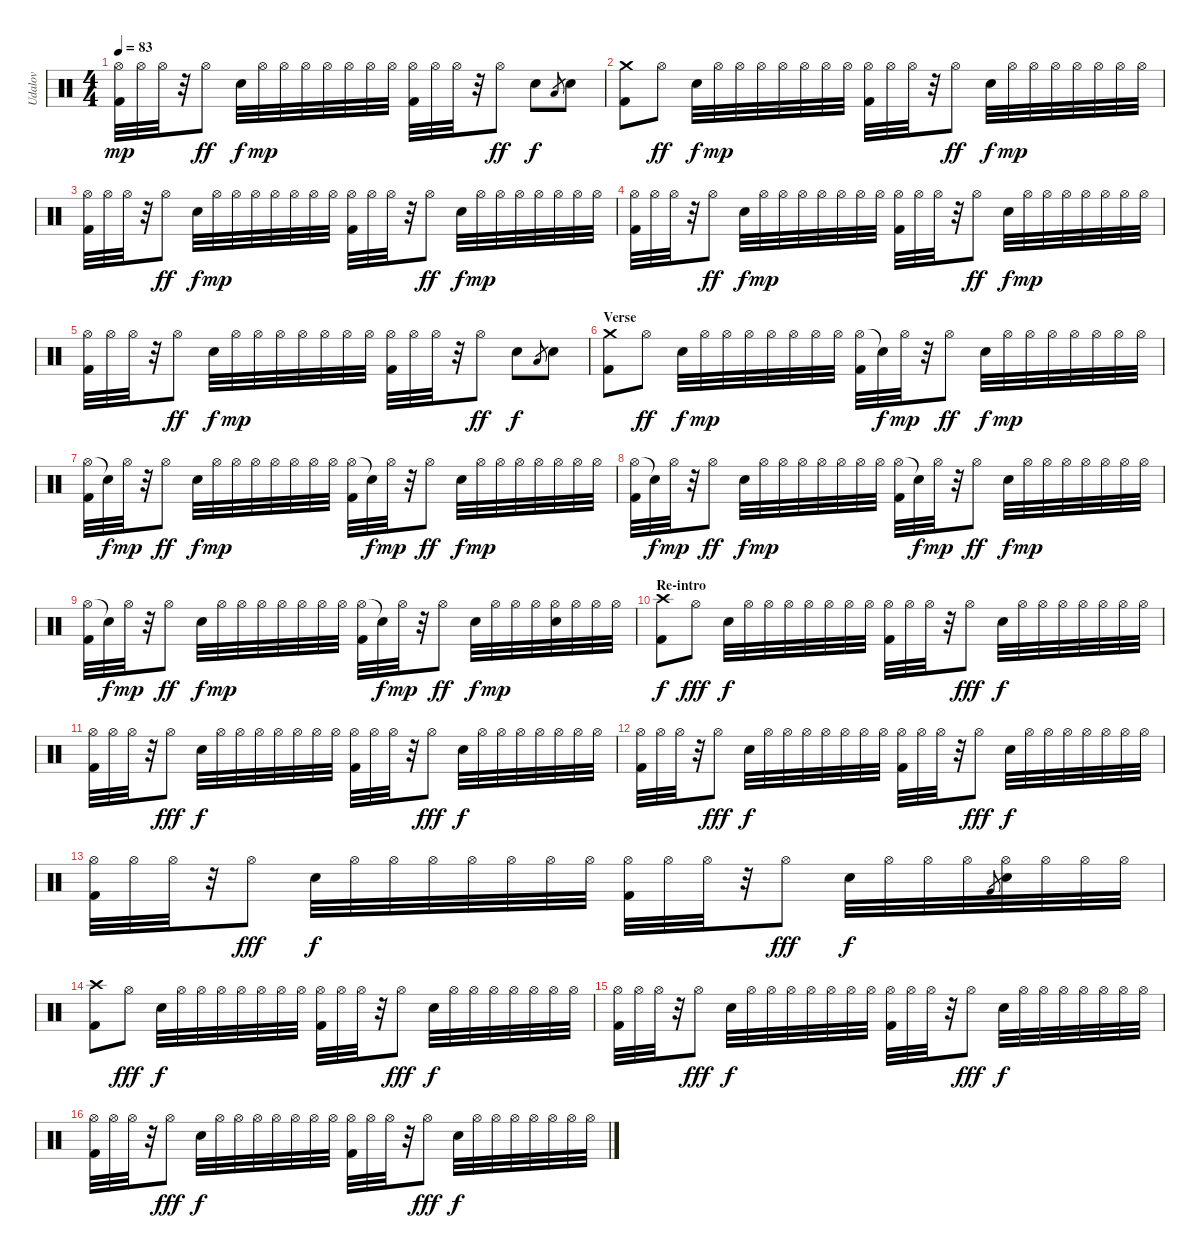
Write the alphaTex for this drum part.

\track ("Udalov" "Udalov") {instrument percussion}
\staff {score}
\articulation defaults
\ts (4 4)
\tempo 83
\clef neutral
\ks c
("Hi-Hat (open)" "Kick (hit) 2").32{dy mp} "Hi-Hat (open)".32 "Hi-Hat (open)".32 r.32 "Hi-Hat (open)".8{dy ff} "Snare (hit) 2".32{dy f} "Hi-Hat (open)".32{dy mp} "Hi-Hat (open)".32 "Hi-Hat (open)".32 "Hi-Hat (open)".32 "Hi-Hat (open)".32 "Hi-Hat (open)".32 "Hi-Hat (open)".32 ("Hi-Hat (open)" "Kick (hit) 2").32 "Hi-Hat (open)".32 "Hi-Hat (open)".32 r.32 "Hi-Hat (open)".8{dy ff} "Snare (hit) 2".8{dy f} "Low Floor Tom (hit)".8{gr} "Snare (hit) 2".8 |
("Crash medium (hit)" "Kick (hit) 2").8 "Hi-Hat (open)".8{dy ff} "Snare (hit) 2".32{dy f} "Hi-Hat (open)".32{dy mp} "Hi-Hat (open)".32 "Hi-Hat (open)".32 "Hi-Hat (open)".32 "Hi-Hat (open)".32 "Hi-Hat (open)".32 "Hi-Hat (open)".32 ("Hi-Hat (open)" "Kick (hit) 2").32 "Hi-Hat (open)".32 "Hi-Hat (open)".32 r.32 "Hi-Hat (open)".8{dy ff} "Snare (hit) 2".32{dy f} "Hi-Hat (open)".32{dy mp} "Hi-Hat (open)".32 "Hi-Hat (open)".32 "Hi-Hat (open)".32 "Hi-Hat (open)".32 "Hi-Hat (open)".32 "Hi-Hat (open)".32 |
("Hi-Hat (open)" "Kick (hit) 2").32 "Hi-Hat (open)".32 "Hi-Hat (open)".32 r.32 "Hi-Hat (open)".8{dy ff} "Snare (hit) 2".32{dy f} "Hi-Hat (open)".32{dy mp} "Hi-Hat (open)".32 "Hi-Hat (open)".32 "Hi-Hat (open)".32 "Hi-Hat (open)".32 "Hi-Hat (open)".32 "Hi-Hat (open)".32 ("Hi-Hat (open)" "Kick (hit) 2").32 "Hi-Hat (open)".32 "Hi-Hat (open)".32 r.32 "Hi-Hat (open)".8{dy ff} "Snare (hit) 2".32{dy f} "Hi-Hat (open)".32{dy mp} "Hi-Hat (open)".32 "Hi-Hat (open)".32 "Hi-Hat (open)".32 "Hi-Hat (open)".32 "Hi-Hat (open)".32 "Hi-Hat (open)".32 |
("Hi-Hat (open)" "Kick (hit) 2").32 "Hi-Hat (open)".32 "Hi-Hat (open)".32 r.32 "Hi-Hat (open)".8{dy ff} "Snare (hit) 2".32{dy f} "Hi-Hat (open)".32{dy mp} "Hi-Hat (open)".32 "Hi-Hat (open)".32 "Hi-Hat (open)".32 "Hi-Hat (open)".32 "Hi-Hat (open)".32 "Hi-Hat (open)".32 ("Hi-Hat (open)" "Kick (hit) 2").32 "Hi-Hat (open)".32 "Hi-Hat (open)".32 r.32 "Hi-Hat (open)".8{dy ff} "Snare (hit) 2".32{dy f} "Hi-Hat (open)".32{dy mp} "Hi-Hat (open)".32 "Hi-Hat (open)".32 "Hi-Hat (open)".32 "Hi-Hat (open)".32 "Hi-Hat (open)".32 "Hi-Hat (open)".32 |
("Hi-Hat (open)" "Kick (hit) 2").32 "Hi-Hat (open)".32 "Hi-Hat (open)".32 r.32 "Hi-Hat (open)".8{dy ff} "Snare (hit) 2".32{dy f} "Hi-Hat (open)".32{dy mp} "Hi-Hat (open)".32 "Hi-Hat (open)".32 "Hi-Hat (open)".32 "Hi-Hat (open)".32 "Hi-Hat (open)".32 "Hi-Hat (open)".32 ("Hi-Hat (open)" "Kick (hit) 2").32 "Hi-Hat (open)".32 "Hi-Hat (open)".32 r.32 "Hi-Hat (open)".8{dy ff} "Snare (hit) 2".8{dy f} "Low Floor Tom (hit)".8{gr} "Snare (hit) 2".8 |
\section ("" "Verse")
("Crash medium (hit)" "Kick (hit) 2").8 "Hi-Hat (open)".8{dy ff} "Snare (hit) 2".32{dy f} "Hi-Hat (open)".32{dy mp} "Hi-Hat (open)".32 "Hi-Hat (open)".32 "Hi-Hat (open)".32 "Hi-Hat (open)".32 "Hi-Hat (open)".32 "Hi-Hat (open)".32 ("Hi-Hat (open)" "Kick (hit) 2").32 "Snare (hit)"{t}.32{dy f} "Hi-Hat (open)".32{dy mp} r.32 "Hi-Hat (open)".8{dy ff} "Snare (hit) 2".32{dy f} "Hi-Hat (open)".32{dy mp} "Hi-Hat (open)".32 "Hi-Hat (open)".32 "Hi-Hat (open)".32 "Hi-Hat (open)".32 "Hi-Hat (open)".32 "Hi-Hat (open)".32 |
("Hi-Hat (open)" "Kick (hit) 2").32 "Snare (hit)"{t}.32{dy f} "Hi-Hat (open)".32{dy mp} r.32 "Hi-Hat (open)".8{dy ff} "Snare (hit) 2".32{dy f} "Hi-Hat (open)".32{dy mp} "Hi-Hat (open)".32 "Hi-Hat (open)".32 "Hi-Hat (open)".32 "Hi-Hat (open)".32 "Hi-Hat (open)".32 "Hi-Hat (open)".32 ("Hi-Hat (open)" "Kick (hit) 2").32 "Snare (hit)"{t}.32{dy f} "Hi-Hat (open)".32{dy mp} r.32 "Hi-Hat (open)".8{dy ff} "Snare (hit) 2".32{dy f} "Hi-Hat (open)".32{dy mp} "Hi-Hat (open)".32 "Hi-Hat (open)".32 "Hi-Hat (open)".32 "Hi-Hat (open)".32 "Hi-Hat (open)".32 "Hi-Hat (open)".32 |
("Hi-Hat (open)" "Kick (hit) 2").32 "Snare (hit)"{t}.32{dy f} "Hi-Hat (open)".32{dy mp} r.32 "Hi-Hat (open)".8{dy ff} "Snare (hit) 2".32{dy f} "Hi-Hat (open)".32{dy mp} "Hi-Hat (open)".32 "Hi-Hat (open)".32 "Hi-Hat (open)".32 "Hi-Hat (open)".32 "Hi-Hat (open)".32 "Hi-Hat (open)".32 ("Hi-Hat (open)" "Kick (hit) 2").32 "Snare (hit)"{t}.32{dy f} "Hi-Hat (open)".32{dy mp} r.32 "Hi-Hat (open)".8{dy ff} "Snare (hit) 2".32{dy f} "Hi-Hat (open)".32{dy mp} "Hi-Hat (open)".32 "Hi-Hat (open)".32 "Hi-Hat (open)".32 "Hi-Hat (open)".32 "Hi-Hat (open)".32 "Hi-Hat (open)".32 |
("Hi-Hat (open)" "Kick (hit) 2").32 "Snare (hit)"{t}.32{dy f} "Hi-Hat (open)".32{dy mp} r.32 "Hi-Hat (open)".8{dy ff} "Snare (hit) 2".32{dy f} "Hi-Hat (open)".32{dy mp} "Hi-Hat (open)".32 "Hi-Hat (open)".32 "Hi-Hat (open)".32 "Hi-Hat (open)".32 "Hi-Hat (open)".32 "Hi-Hat (open)".32 ("Hi-Hat (open)" "Kick (hit) 2").32 "Snare (hit)"{t}.32{dy f} "Hi-Hat (open)".32{dy mp} r.32 "Hi-Hat (open)".8{dy ff} "Snare (hit) 2".32{dy f} "Hi-Hat (open)".32{dy mp} "Hi-Hat (open)".32 "Hi-Hat (open)".32 ("Hi-Hat (open)" "Snare (hit) 2").32 "Hi-Hat (open)".32 "Hi-Hat (open)".32 "Hi-Hat (open)".32 |
\section ("" "Re-intro")
("Crash high (hit)" "Kick (hit) 2").8{dy f} "Hi-Hat (open)".8{dy fff} "Snare (hit) 2".32{dy f} "Hi-Hat (open)".32 "Hi-Hat (open)".32 "Hi-Hat (open)".32 "Hi-Hat (open)".32 "Hi-Hat (open)".32 "Hi-Hat (open)".32 "Hi-Hat (open)".32 ("Hi-Hat (open)" "Kick (hit) 2").32 "Hi-Hat (open)".32 "Hi-Hat (open)".32 r.32 "Hi-Hat (open)".8{dy fff} "Snare (hit) 2".32{dy f} "Hi-Hat (open)".32 "Hi-Hat (open)".32 "Hi-Hat (open)".32 "Hi-Hat (open)".32 "Hi-Hat (open)".32 "Hi-Hat (open)".32 "Hi-Hat (open)".32 |
("Hi-Hat (open)" "Kick (hit) 2").32 "Hi-Hat (open)".32 "Hi-Hat (open)".32 r.32 "Hi-Hat (open)".8{dy fff} "Snare (hit) 2".32{dy f} "Hi-Hat (open)".32 "Hi-Hat (open)".32 "Hi-Hat (open)".32 "Hi-Hat (open)".32 "Hi-Hat (open)".32 "Hi-Hat (open)".32 "Hi-Hat (open)".32 ("Hi-Hat (open)" "Kick (hit) 2").32 "Hi-Hat (open)".32 "Hi-Hat (open)".32 r.32 "Hi-Hat (open)".8{dy fff} "Snare (hit) 2".32{dy f} "Hi-Hat (open)".32 "Hi-Hat (open)".32 "Hi-Hat (open)".32 "Hi-Hat (open)".32 "Hi-Hat (open)".32 "Hi-Hat (open)".32 "Hi-Hat (open)".32 |
("Hi-Hat (open)" "Kick (hit) 2").32 "Hi-Hat (open)".32 "Hi-Hat (open)".32 r.32 "Hi-Hat (open)".8{dy fff} "Snare (hit) 2".32{dy f} "Hi-Hat (open)".32 "Hi-Hat (open)".32 "Hi-Hat (open)".32 "Hi-Hat (open)".32 "Hi-Hat (open)".32 "Hi-Hat (open)".32 "Hi-Hat (open)".32 ("Hi-Hat (open)" "Kick (hit) 2").32 "Hi-Hat (open)".32 "Hi-Hat (open)".32 r.32 "Hi-Hat (open)".8{dy fff} "Snare (hit) 2".32{dy f} "Hi-Hat (open)".32 "Hi-Hat (open)".32 "Hi-Hat (open)".32 "Hi-Hat (open)".32 "Hi-Hat (open)".32 "Hi-Hat (open)".32 "Hi-Hat (open)".32 |
("Hi-Hat (open)" "Kick (hit) 2").32 "Hi-Hat (open)".32 "Hi-Hat (open)".32 r.32 "Hi-Hat (open)".8{dy fff} "Snare (hit) 2".32{dy f} "Hi-Hat (open)".32 "Hi-Hat (open)".32 "Hi-Hat (open)".32 "Hi-Hat (open)".32 "Hi-Hat (open)".32 "Hi-Hat (open)".32 "Hi-Hat (open)".32 ("Hi-Hat (open)" "Kick (hit) 2").32 "Hi-Hat (open)".32 "Hi-Hat (open)".32 r.32 "Hi-Hat (open)".8{dy fff} "Snare (hit) 2".32{dy f} "Hi-Hat (open)".32 "Hi-Hat (open)".32 "Hi-Hat (open)".32 "Very Low Tom (hit)".8{gr} ("Hi-Hat (open)" "Snare (hit) 2").32 "Hi-Hat (open)".32 "Hi-Hat (open)".32 "Hi-Hat (open)".32 |
("Crash high (hit)" "Kick (hit) 2").8 "Hi-Hat (open)".8{dy fff} "Snare (hit) 2".32{dy f} "Hi-Hat (open)".32 "Hi-Hat (open)".32 "Hi-Hat (open)".32 "Hi-Hat (open)".32 "Hi-Hat (open)".32 "Hi-Hat (open)".32 "Hi-Hat (open)".32 ("Hi-Hat (open)" "Kick (hit) 2").32 "Hi-Hat (open)".32 "Hi-Hat (open)".32 r.32 "Hi-Hat (open)".8{dy fff} "Snare (hit) 2".32{dy f} "Hi-Hat (open)".32 "Hi-Hat (open)".32 "Hi-Hat (open)".32 "Hi-Hat (open)".32 "Hi-Hat (open)".32 "Hi-Hat (open)".32 "Hi-Hat (open)".32 |
("Hi-Hat (open)" "Kick (hit) 2").32 "Hi-Hat (open)".32 "Hi-Hat (open)".32 r.32 "Hi-Hat (open)".8{dy fff} "Snare (hit) 2".32{dy f} "Hi-Hat (open)".32 "Hi-Hat (open)".32 "Hi-Hat (open)".32 "Hi-Hat (open)".32 "Hi-Hat (open)".32 "Hi-Hat (open)".32 "Hi-Hat (open)".32 ("Hi-Hat (open)" "Kick (hit) 2").32 "Hi-Hat (open)".32 "Hi-Hat (open)".32 r.32 "Hi-Hat (open)".8{dy fff} "Snare (hit) 2".32{dy f} "Hi-Hat (open)".32 "Hi-Hat (open)".32 "Hi-Hat (open)".32 "Hi-Hat (open)".32 "Hi-Hat (open)".32 "Hi-Hat (open)".32 "Hi-Hat (open)".32 |
("Hi-Hat (open)" "Kick (hit) 2").32 "Hi-Hat (open)".32 "Hi-Hat (open)".32 r.32 "Hi-Hat (open)".8{dy fff} "Snare (hit) 2".32{dy f} "Hi-Hat (open)".32 "Hi-Hat (open)".32 "Hi-Hat (open)".32 "Hi-Hat (open)".32 "Hi-Hat (open)".32 "Hi-Hat (open)".32 "Hi-Hat (open)".32 ("Hi-Hat (open)" "Kick (hit) 2").32 "Hi-Hat (open)".32 "Hi-Hat (open)".32 r.32 "Hi-Hat (open)".8{dy fff} "Snare (hit) 2".32{dy f} "Hi-Hat (open)".32 "Hi-Hat (open)".32 "Hi-Hat (open)".32 "Hi-Hat (open)".32 "Hi-Hat (open)".32 "Hi-Hat (open)".32 "Hi-Hat (open)".32
